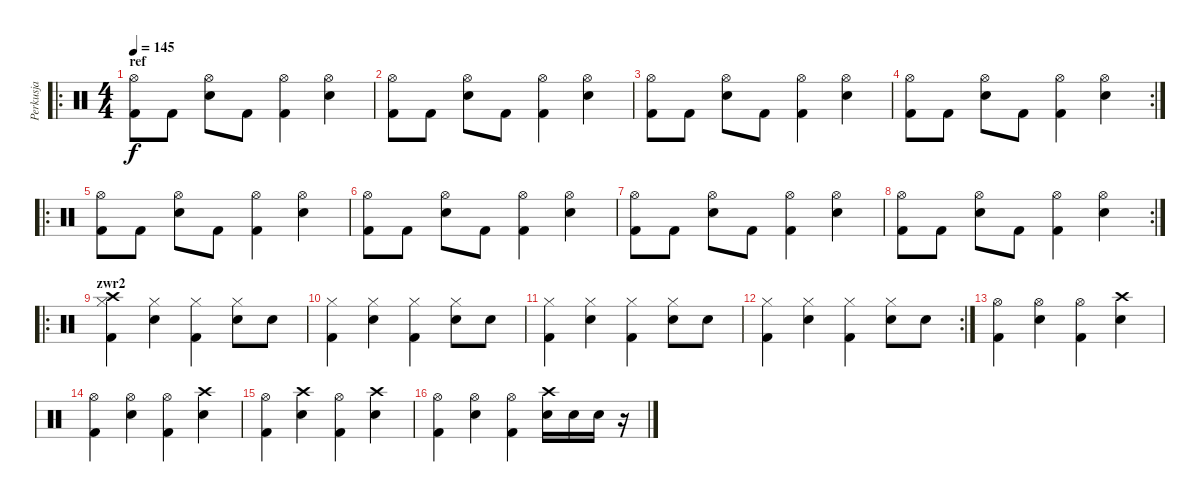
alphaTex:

\track ("Perkusja" "Perkusja") {instrument percussion}
\staff {score}
\articulation defaults
\ro
\ts (4 4)
\section ("" "ref")
\tempo 145
\clef neutral
\ks c
("Hi-Hat (open)" "Kick (hit) 2").8{dy f} "Kick (hit) 2".8 ("Hi-Hat (open)" "Electric Snare (hit)").8 "Kick (hit) 2".8 ("Hi-Hat (open)" "Kick (hit) 2").4 ("Hi-Hat (open)" "Electric Snare (hit)").4 |
("Hi-Hat (open)" "Kick (hit) 2").8 "Kick (hit) 2".8 ("Hi-Hat (open)" "Electric Snare (hit)").8 "Kick (hit) 2".8 ("Hi-Hat (open)" "Kick (hit) 2").4 ("Hi-Hat (open)" "Electric Snare (hit)").4 |
("Hi-Hat (open)" "Kick (hit) 2").8 "Kick (hit) 2".8 ("Hi-Hat (open)" "Electric Snare (hit)").8 "Kick (hit) 2".8 ("Hi-Hat (open)" "Kick (hit) 2").4 ("Hi-Hat (open)" "Electric Snare (hit)").4 |
\rc 2
("Hi-Hat (open)" "Kick (hit) 2").8 "Kick (hit) 2".8 ("Hi-Hat (open)" "Electric Snare (hit)").8 "Kick (hit) 2".8 ("Hi-Hat (open)" "Kick (hit) 2").4 ("Hi-Hat (open)" "Electric Snare (hit)").4 |
\ro
("Hi-Hat (open)" "Kick (hit) 2").8 "Kick (hit) 2".8 ("Hi-Hat (open)" "Electric Snare (hit)").8 "Kick (hit) 2".8 ("Hi-Hat (open)" "Kick (hit) 2").4 ("Hi-Hat (open)" "Electric Snare (hit)").4 |
("Hi-Hat (open)" "Kick (hit) 2").8 "Kick (hit) 2".8 ("Hi-Hat (open)" "Electric Snare (hit)").8 "Kick (hit) 2".8 ("Hi-Hat (open)" "Kick (hit) 2").4 ("Hi-Hat (open)" "Electric Snare (hit)").4 |
("Hi-Hat (open)" "Kick (hit) 2").8 "Kick (hit) 2".8 ("Hi-Hat (open)" "Electric Snare (hit)").8 "Kick (hit) 2".8 ("Hi-Hat (open)" "Kick (hit) 2").4 ("Hi-Hat (open)" "Electric Snare (hit)").4 |
\rc 2
("Hi-Hat (open)" "Kick (hit) 2").8 "Kick (hit) 2".8 ("Hi-Hat (open)" "Electric Snare (hit)").8 "Kick (hit) 2".8 ("Hi-Hat (open)" "Kick (hit) 2").4 ("Hi-Hat (open)" "Electric Snare (hit)").4 |
\ro
\section ("" "zwr2")
("Hi-Hat (closed)" "Kick (hit) 2" "Crash high (hit)").4 ("Hi-Hat (closed)" "Electric Snare (hit)").4 ("Hi-Hat (closed)" "Kick (hit) 2").4 ("Hi-Hat (closed)" "Electric Snare (hit)").8 "Electric Snare (hit)".8 |
("Hi-Hat (closed)" "Kick (hit) 2").4 ("Hi-Hat (closed)" "Electric Snare (hit)").4 ("Hi-Hat (closed)" "Kick (hit) 2").4 ("Hi-Hat (closed)" "Electric Snare (hit)").8 "Electric Snare (hit)".8 |
("Hi-Hat (closed)" "Kick (hit) 2").4 ("Hi-Hat (closed)" "Electric Snare (hit)").4 ("Hi-Hat (closed)" "Kick (hit) 2").4 ("Hi-Hat (closed)" "Electric Snare (hit)").8 "Electric Snare (hit)".8 |
\rc 2
("Hi-Hat (closed)" "Kick (hit) 2").4 ("Hi-Hat (closed)" "Electric Snare (hit)").4 ("Hi-Hat (closed)" "Kick (hit) 2").4 ("Hi-Hat (closed)" "Electric Snare (hit)").8 "Electric Snare (hit)".8 |
("Hi-Hat (open)" "Kick (hit) 2").4 ("Hi-Hat (open)" "Electric Snare (hit)").4 ("Hi-Hat (open)" "Kick (hit) 2").4 ("Crash high (hit)" "Electric Snare (hit)").4 |
("Hi-Hat (open)" "Kick (hit) 2").4 ("Hi-Hat (open)" "Electric Snare (hit)").4 ("Hi-Hat (open)" "Kick (hit) 2").4 ("Crash high (hit)" "Electric Snare (hit)").4 |
("Hi-Hat (open)" "Kick (hit) 2").4 ("Crash high (hit)" "Electric Snare (hit)").4 ("Hi-Hat (open)" "Kick (hit) 2").4 ("Crash high (hit)" "Electric Snare (hit)").4 |
("Hi-Hat (open)" "Kick (hit) 2").4 ("Hi-Hat (open)" "Electric Snare (hit)").4 ("Hi-Hat (open)" "Kick (hit) 2").4 ("Crash high (hit)" "Electric Snare (hit)").16 "Electric Snare (hit)".16 "Electric Snare (hit)".16 r.16
